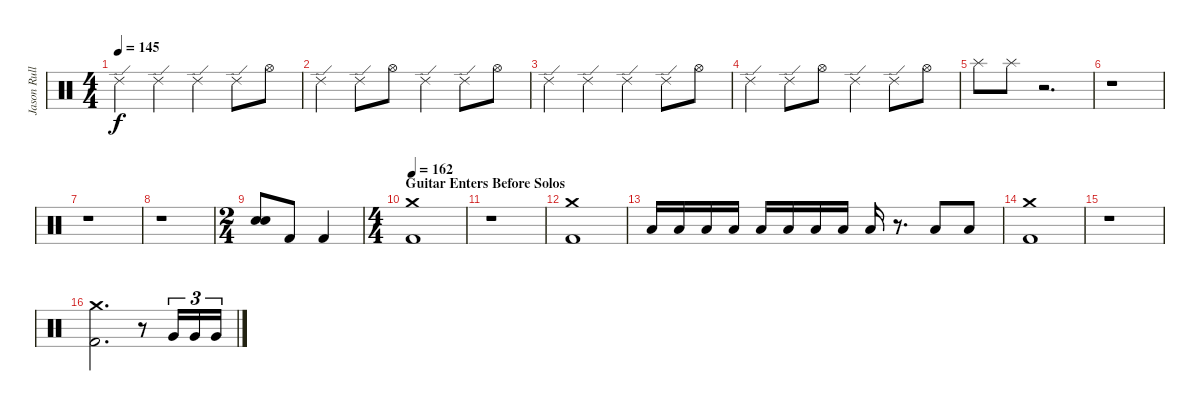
\track ("Jason Rullo" "Jason Rull") {instrument percussion}
\staff {score}
\articulation defaults
\ts (4 4)
\tempo 145
\clef neutral
\ks c "Ride (edge) 2".4{dy f} "Ride (edge) 2".4 "Ride (edge) 2".4 "Ride (edge) 2".8 "Hi-Hat (open)".8
|
"Ride (edge) 2".4 "Ride (edge) 2".8 "Hi-Hat (open)".8 "Ride (edge) 2".4 "Ride (edge) 2".8 "Hi-Hat (open)".8 |
"Ride (edge) 2".4 "Ride (edge) 2".4 "Ride (edge) 2".4 "Ride (edge) 2".8 "Hi-Hat (open)".8 |
"Ride (edge) 2".4 "Ride (edge) 2".8 "Hi-Hat (open)".8 "Ride (edge) 2".4 "Ride (edge) 2".8 "Hi-Hat (open)".8 |
"Splash (hit)".8 "Splash (hit)".8 r.2{d} |
r.1 |
r.1 |
r.1 |
\ts (2 4)
("Electric Snare (hit)" "Electric Snare (hit)").8 "Kick (hit) 2".8 "Kick (hit) 2".4 |
\ts (4 4)
\section ("" "Guitar Enters Before Solos")
\tempo 162
("Crash medium (hit)" "Kick (hit) 2").1 |
r.1 |
("Crash medium (hit)" "Kick (hit) 2").1 |
"Low Floor Tom (hit)".16{volume 0} "Low Floor Tom (hit)".16{volume 2} "Low Floor Tom (hit)".16{volume 4} "Low Floor Tom (hit)".16{volume 5} "Low Floor Tom (hit)".16{volume 7} "Low Floor Tom (hit)".16{volume 9} "Low Floor Tom (hit)".16{volume 11} "Low Floor Tom (hit)".16{volume 12} "Low Floor Tom (hit)".16{volume 14} r.8{d} "Low Floor Tom (hit)".8{volume 16} "Low Floor Tom (hit)".8 |
("Crash medium (hit)" "Kick (hit) 2").1 |
r.1 |
("Crash medium (hit)" "Kick (hit) 2").2{d} r.8 "Very Low Tom (hit)".16{tu (3 2)} "Very Low Tom (hit)".16{tu (3 2)} "Very Low Tom (hit)".16{tu (3 2)}
